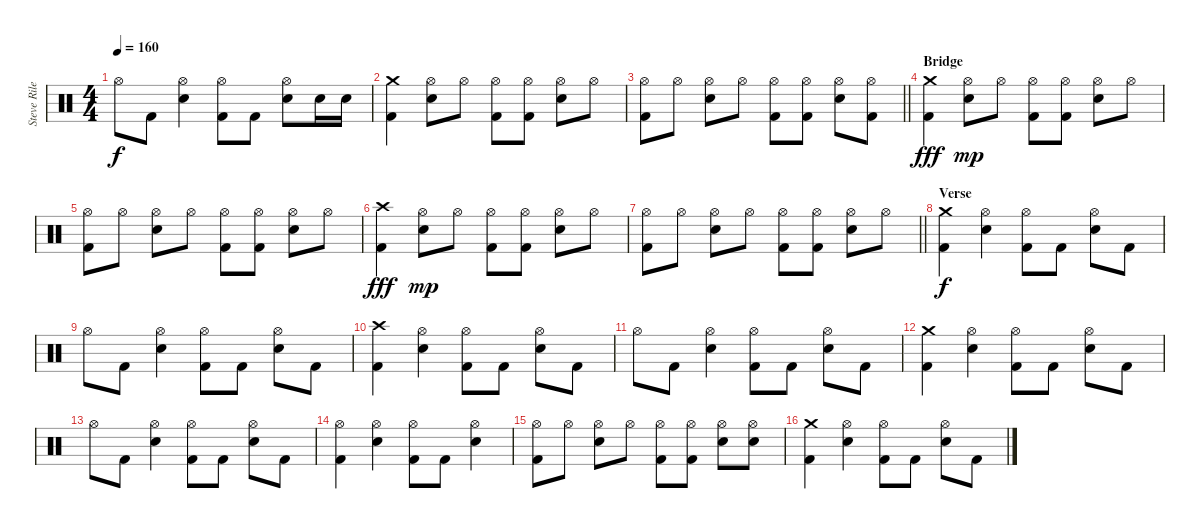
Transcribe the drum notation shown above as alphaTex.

\track ("Steve Riley" "Steve Rile") {instrument percussion}
\staff {score}
\articulation defaults
\ts (4 4)
\tempo 160
\clef neutral
\ks c "Hi-Hat (open)".8{dy f} "Kick (hit) 2".8
("Hi-Hat (open)" "Snare (hit) 2").4 ("Hi-Hat (open)" "Kick (hit) 2").8 "Kick (hit) 2".8 ("Hi-Hat (open)" "Snare (hit) 2").8 "Snare (hit) 2".16 "Snare (hit) 2".16 |
("Crash medium (hit)" "Kick (hit) 2").4 ("Hi-Hat (open)" "Snare (hit) 2").8 "Hi-Hat (open)".8 ("Hi-Hat (open)" "Kick (hit) 2").8 ("Hi-Hat (open)" "Kick (hit) 2").8 ("Hi-Hat (open)" "Snare (hit) 2").8 "Hi-Hat (open)".8 |
\barLineRight lightlight
("Hi-Hat (open)" "Kick (hit) 2").8 "Hi-Hat (open)".8 ("Hi-Hat (open)" "Snare (hit) 2").8 "Hi-Hat (open)".8 ("Hi-Hat (open)" "Kick (hit) 2").8 ("Hi-Hat (open)" "Kick (hit) 2").8 ("Hi-Hat (open)" "Snare (hit) 2").8 ("Hi-Hat (open)" "Kick (hit) 2").8 |
\section ("" "Bridge")
("Crash medium (hit)" "Kick (hit) 2").4{dy fff} ("Hi-Hat (open)" "Snare (hit) 2").8{dy mp} "Hi-Hat (open)".8 ("Hi-Hat (open)" "Kick (hit) 2").8 ("Hi-Hat (open)" "Kick (hit) 2").8 ("Hi-Hat (open)" "Snare (hit) 2").8 "Hi-Hat (open)".8 |
("Hi-Hat (open)" "Kick (hit) 2").8 "Hi-Hat (open)".8 ("Hi-Hat (open)" "Snare (hit) 2").8 "Hi-Hat (open)".8 ("Hi-Hat (open)" "Kick (hit) 2").8 ("Hi-Hat (open)" "Kick (hit) 2").8 ("Hi-Hat (open)" "Snare (hit) 2").8 "Hi-Hat (open)".8 |
("Crash high (hit)" "Kick (hit) 2").4{dy fff} ("Hi-Hat (open)" "Snare (hit) 2").8{dy mp} "Hi-Hat (open)".8 ("Hi-Hat (open)" "Kick (hit) 2").8 ("Hi-Hat (open)" "Kick (hit) 2").8 ("Hi-Hat (open)" "Snare (hit) 2").8 "Hi-Hat (open)".8 |
\barLineRight lightlight
("Hi-Hat (open)" "Kick (hit) 2").8 "Hi-Hat (open)".8 ("Hi-Hat (open)" "Snare (hit) 2").8 "Hi-Hat (open)".8 ("Hi-Hat (open)" "Kick (hit) 2").8 ("Hi-Hat (open)" "Kick (hit) 2").8 ("Hi-Hat (open)" "Snare (hit) 2").8 "Hi-Hat (open)".8 |
\section ("" "Verse")
("Crash medium (hit)" "Kick (hit) 2").4{dy f} ("Hi-Hat (open)" "Snare (hit) 2").4 ("Hi-Hat (open)" "Kick (hit) 2").8 "Kick (hit) 2".8 ("Hi-Hat (open)" "Snare (hit) 2").8 "Kick (hit) 2".8 |
"Hi-Hat (open)".8 "Kick (hit) 2".8 ("Hi-Hat (open)" "Snare (hit) 2").4 ("Hi-Hat (open)" "Kick (hit) 2").8 "Kick (hit) 2".8 ("Hi-Hat (open)" "Snare (hit) 2").8 "Kick (hit) 2".8 |
("Crash high (hit)" "Kick (hit) 2").4 ("Hi-Hat (open)" "Snare (hit) 2").4 ("Hi-Hat (open)" "Kick (hit) 2").8 "Kick (hit) 2".8 ("Hi-Hat (open)" "Snare (hit) 2").8 "Kick (hit) 2".8 |
"Hi-Hat (open)".8 "Kick (hit) 2".8 ("Hi-Hat (open)" "Snare (hit) 2").4 ("Hi-Hat (open)" "Kick (hit) 2").8 "Kick (hit) 2".8 ("Hi-Hat (open)" "Snare (hit) 2").8 "Kick (hit) 2".8 |
("Crash medium (hit)" "Kick (hit) 2").4 ("Hi-Hat (open)" "Snare (hit) 2").4 ("Hi-Hat (open)" "Kick (hit) 2").8 "Kick (hit) 2".8 ("Hi-Hat (open)" "Snare (hit) 2").8 "Kick (hit) 2".8 |
"Hi-Hat (open)".8 "Kick (hit) 2".8 ("Hi-Hat (open)" "Snare (hit) 2").4 ("Hi-Hat (open)" "Kick (hit) 2").8 "Kick (hit) 2".8 ("Hi-Hat (open)" "Snare (hit) 2").8 "Kick (hit) 2".8 |
("Hi-Hat (open)" "Kick (hit) 2").4 ("Hi-Hat (open)" "Snare (hit) 2").4 ("Hi-Hat (open)" "Kick (hit) 2").8 "Kick (hit) 2".8 ("Hi-Hat (open)" "Snare (hit) 2").4 |
("Hi-Hat (open)" "Kick (hit) 2").8 "Hi-Hat (open)".8 ("Hi-Hat (open)" "Snare (hit) 2").8 "Hi-Hat (open)".8 ("Hi-Hat (open)" "Kick (hit) 2").8 ("Hi-Hat (open)" "Kick (hit) 2").8 ("Hi-Hat (open)" "Snare (hit) 2").8 ("Hi-Hat (open)" "Snare (hit) 2").8 |
("Crash medium (hit)" "Kick (hit) 2").4 ("Hi-Hat (open)" "Snare (hit) 2").4 ("Hi-Hat (open)" "Kick (hit) 2").8 "Kick (hit) 2".8 ("Hi-Hat (open)" "Snare (hit) 2").8 "Kick (hit) 2".8
